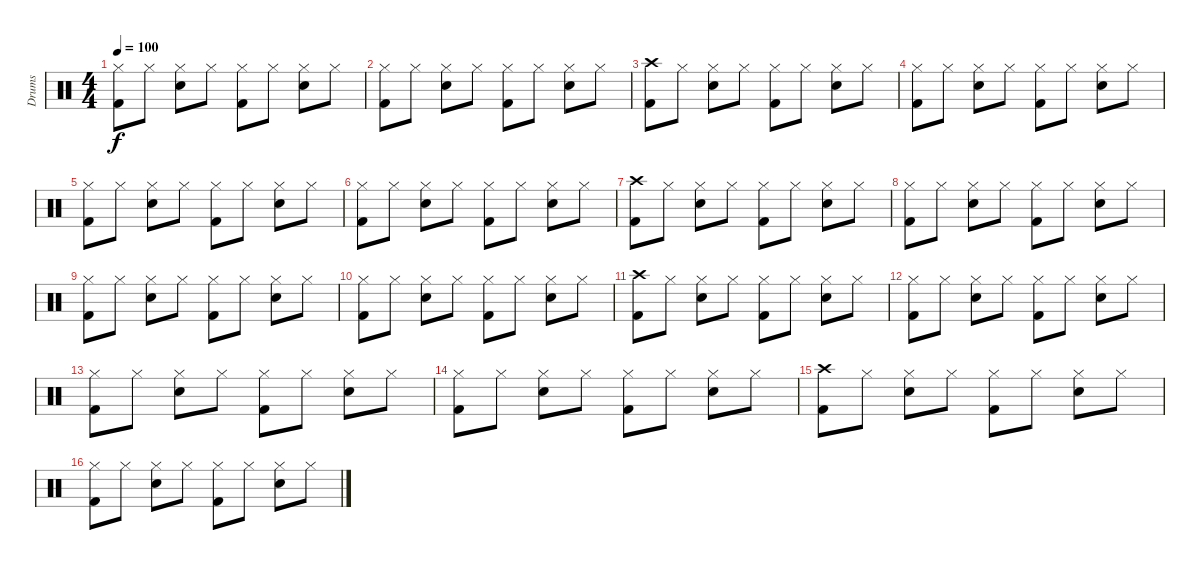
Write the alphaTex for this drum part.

\track ("Drums" "Drums") {instrument percussion}
\staff {score}
\articulation defaults
\ts (4 4)
\tempo 100
\clef neutral
\ks c
("Hi-Hat (closed)" "Kick (hit) 2").8{dy f} "Hi-Hat (closed)".8 ("Hi-Hat (closed)" "Electric Snare (hit)").8 "Hi-Hat (closed)".8 ("Hi-Hat (closed)" "Kick (hit) 2").8 "Hi-Hat (closed)".8 ("Hi-Hat (closed)" "Electric Snare (hit)").8 "Hi-Hat (closed)".8 |
("Hi-Hat (closed)" "Kick (hit) 2").8 "Hi-Hat (closed)".8 ("Hi-Hat (closed)" "Electric Snare (hit)").8 "Hi-Hat (closed)".8 ("Hi-Hat (closed)" "Kick (hit) 2").8 "Hi-Hat (closed)".8 ("Hi-Hat (closed)" "Electric Snare (hit)").8 "Hi-Hat (closed)".8 |
("Crash high (hit)" "Kick (hit) 2").8 "Hi-Hat (closed)".8 ("Hi-Hat (closed)" "Electric Snare (hit)").8 "Hi-Hat (closed)".8 ("Hi-Hat (closed)" "Kick (hit) 2").8 "Hi-Hat (closed)".8 ("Hi-Hat (closed)" "Electric Snare (hit)").8 "Hi-Hat (closed)".8 |
("Hi-Hat (closed)" "Kick (hit) 2").8 "Hi-Hat (closed)".8 ("Hi-Hat (closed)" "Electric Snare (hit)").8 "Hi-Hat (closed)".8 ("Hi-Hat (closed)" "Kick (hit) 2").8 "Hi-Hat (closed)".8 ("Hi-Hat (closed)" "Electric Snare (hit)").8 "Hi-Hat (closed)".8 |
("Hi-Hat (closed)" "Kick (hit) 2").8 "Hi-Hat (closed)".8 ("Hi-Hat (closed)" "Electric Snare (hit)").8 "Hi-Hat (closed)".8 ("Hi-Hat (closed)" "Kick (hit) 2").8 "Hi-Hat (closed)".8 ("Hi-Hat (closed)" "Electric Snare (hit)").8 "Hi-Hat (closed)".8 |
("Hi-Hat (closed)" "Kick (hit) 2").8 "Hi-Hat (closed)".8 ("Hi-Hat (closed)" "Electric Snare (hit)").8 "Hi-Hat (closed)".8 ("Hi-Hat (closed)" "Kick (hit) 2").8 "Hi-Hat (closed)".8 ("Hi-Hat (closed)" "Electric Snare (hit)").8 "Hi-Hat (closed)".8 |
("Crash high (hit)" "Kick (hit) 2").8 "Hi-Hat (closed)".8 ("Hi-Hat (closed)" "Electric Snare (hit)").8 "Hi-Hat (closed)".8 ("Hi-Hat (closed)" "Kick (hit) 2").8 "Hi-Hat (closed)".8 ("Hi-Hat (closed)" "Electric Snare (hit)").8 "Hi-Hat (closed)".8 |
("Hi-Hat (closed)" "Kick (hit) 2").8 "Hi-Hat (closed)".8 ("Hi-Hat (closed)" "Electric Snare (hit)").8 "Hi-Hat (closed)".8 ("Hi-Hat (closed)" "Kick (hit) 2").8 "Hi-Hat (closed)".8 ("Hi-Hat (closed)" "Electric Snare (hit)").8 "Hi-Hat (closed)".8 |
("Hi-Hat (closed)" "Kick (hit) 2").8 "Hi-Hat (closed)".8 ("Hi-Hat (closed)" "Electric Snare (hit)").8 "Hi-Hat (closed)".8 ("Hi-Hat (closed)" "Kick (hit) 2").8 "Hi-Hat (closed)".8 ("Hi-Hat (closed)" "Electric Snare (hit)").8 "Hi-Hat (closed)".8 |
("Hi-Hat (closed)" "Kick (hit) 2").8 "Hi-Hat (closed)".8 ("Hi-Hat (closed)" "Electric Snare (hit)").8 "Hi-Hat (closed)".8 ("Hi-Hat (closed)" "Kick (hit) 2").8 "Hi-Hat (closed)".8 ("Hi-Hat (closed)" "Electric Snare (hit)").8 "Hi-Hat (closed)".8 |
("Crash high (hit)" "Kick (hit) 2").8 "Hi-Hat (closed)".8 ("Hi-Hat (closed)" "Electric Snare (hit)").8 "Hi-Hat (closed)".8 ("Hi-Hat (closed)" "Kick (hit) 2").8 "Hi-Hat (closed)".8 ("Hi-Hat (closed)" "Electric Snare (hit)").8 "Hi-Hat (closed)".8 |
("Hi-Hat (closed)" "Kick (hit) 2").8 "Hi-Hat (closed)".8 ("Hi-Hat (closed)" "Electric Snare (hit)").8 "Hi-Hat (closed)".8 ("Hi-Hat (closed)" "Kick (hit) 2").8 "Hi-Hat (closed)".8 ("Hi-Hat (closed)" "Electric Snare (hit)").8 "Hi-Hat (closed)".8 |
("Hi-Hat (closed)" "Kick (hit) 2").8 "Hi-Hat (closed)".8 ("Hi-Hat (closed)" "Electric Snare (hit)").8 "Hi-Hat (closed)".8 ("Hi-Hat (closed)" "Kick (hit) 2").8 "Hi-Hat (closed)".8 ("Hi-Hat (closed)" "Electric Snare (hit)").8 "Hi-Hat (closed)".8 |
("Hi-Hat (closed)" "Kick (hit) 2").8 "Hi-Hat (closed)".8 ("Hi-Hat (closed)" "Electric Snare (hit)").8 "Hi-Hat (closed)".8 ("Hi-Hat (closed)" "Kick (hit) 2").8 "Hi-Hat (closed)".8 ("Hi-Hat (closed)" "Electric Snare (hit)").8 "Hi-Hat (closed)".8 |
("Crash high (hit)" "Kick (hit) 2").8 "Hi-Hat (closed)".8 ("Hi-Hat (closed)" "Electric Snare (hit)").8 "Hi-Hat (closed)".8 ("Hi-Hat (closed)" "Kick (hit) 2").8 "Hi-Hat (closed)".8 ("Hi-Hat (closed)" "Electric Snare (hit)").8 "Hi-Hat (closed)".8 |
("Hi-Hat (closed)" "Kick (hit) 2").8 "Hi-Hat (closed)".8 ("Hi-Hat (closed)" "Electric Snare (hit)").8 "Hi-Hat (closed)".8 ("Hi-Hat (closed)" "Kick (hit) 2").8 "Hi-Hat (closed)".8 ("Hi-Hat (closed)" "Electric Snare (hit)").8 "Hi-Hat (closed)".8
